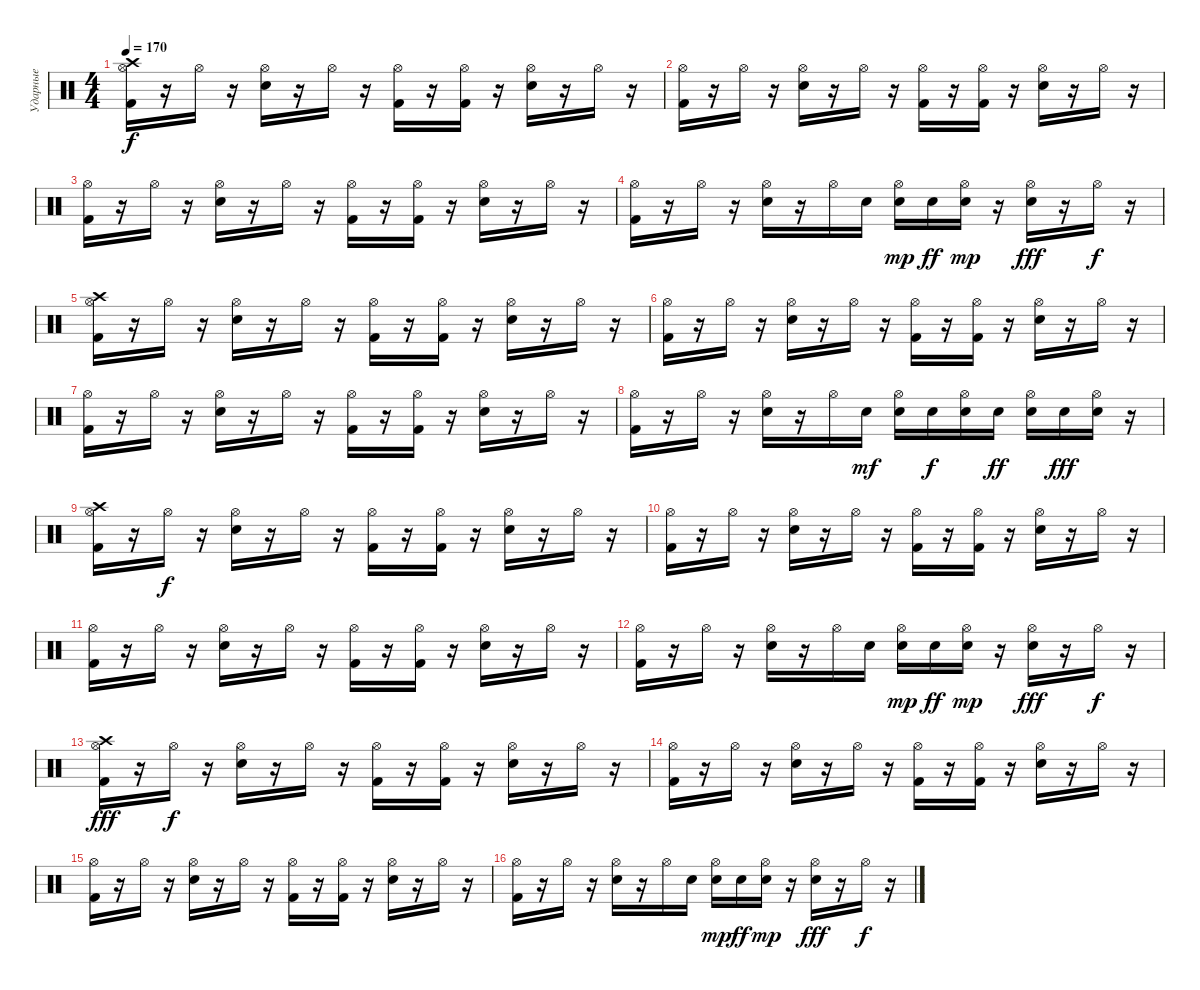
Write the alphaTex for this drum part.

\track ("Ударные" "Ударные") {instrument percussion}
\staff {score}
\articulation defaults
\ts (4 4)
\tempo 170
\clef neutral
\ks c
("Kick (hit) 2" "Crash high (hit)" "Hi-Hat (open)").16{dy f} r.16 "Hi-Hat (open)".16 r.16 ("Snare (hit) 2" "Hi-Hat (open)").16 r.16 "Hi-Hat (open)".16 r.16 ("Kick (hit) 2" "Hi-Hat (open)").16 r.16 ("Kick (hit) 2" "Hi-Hat (open)").16 r.16 ("Snare (hit) 2" "Hi-Hat (open)").16 r.16 "Hi-Hat (open)".16 r.16 |
("Kick (hit) 2" "Hi-Hat (open)").16 r.16 "Hi-Hat (open)".16 r.16 ("Snare (hit) 2" "Hi-Hat (open)").16 r.16 "Hi-Hat (open)".16 r.16 ("Kick (hit) 2" "Hi-Hat (open)").16 r.16 ("Kick (hit) 2" "Hi-Hat (open)").16 r.16 ("Snare (hit) 2" "Hi-Hat (open)").16 r.16 "Hi-Hat (open)".16 r.16 |
("Kick (hit) 2" "Hi-Hat (open)").16 r.16 "Hi-Hat (open)".16 r.16 ("Snare (hit) 2" "Hi-Hat (open)").16 r.16 "Hi-Hat (open)".16 r.16 ("Kick (hit) 2" "Hi-Hat (open)").16 r.16 ("Kick (hit) 2" "Hi-Hat (open)").16 r.16 ("Snare (hit) 2" "Hi-Hat (open)").16 r.16 "Hi-Hat (open)".16 r.16 |
("Kick (hit) 2" "Hi-Hat (open)").16 r.16 "Hi-Hat (open)".16 r.16 ("Snare (hit) 2" "Hi-Hat (open)").16 r.16 "Hi-Hat (open)".16 "Snare (hit) 2".16 ("Snare (hit) 2" "Hi-Hat (open)").16{dy mp} "Snare (hit) 2".16{dy ff} ("Snare (hit) 2" "Hi-Hat (open)").16{dy mp} r.16 ("Snare (hit) 2" "Hi-Hat (open)").16{dy fff} r.16 "Hi-Hat (open)".16{dy f} r.16 |
("Kick (hit) 2" "Crash high (hit)" "Hi-Hat (open)").16 r.16 "Hi-Hat (open)".16 r.16 ("Snare (hit) 2" "Hi-Hat (open)").16 r.16 "Hi-Hat (open)".16 r.16 ("Kick (hit) 2" "Hi-Hat (open)").16 r.16 ("Kick (hit) 2" "Hi-Hat (open)").16 r.16 ("Snare (hit) 2" "Hi-Hat (open)").16 r.16 "Hi-Hat (open)".16 r.16 |
("Kick (hit) 2" "Hi-Hat (open)").16 r.16 "Hi-Hat (open)".16 r.16 ("Snare (hit) 2" "Hi-Hat (open)").16 r.16 "Hi-Hat (open)".16 r.16 ("Kick (hit) 2" "Hi-Hat (open)").16 r.16 ("Kick (hit) 2" "Hi-Hat (open)").16 r.16 ("Snare (hit) 2" "Hi-Hat (open)").16 r.16 "Hi-Hat (open)".16 r.16 |
("Kick (hit) 2" "Hi-Hat (open)").16 r.16 "Hi-Hat (open)".16 r.16 ("Snare (hit) 2" "Hi-Hat (open)").16 r.16 "Hi-Hat (open)".16 r.16 ("Kick (hit) 2" "Hi-Hat (open)").16 r.16 ("Kick (hit) 2" "Hi-Hat (open)").16 r.16 ("Snare (hit) 2" "Hi-Hat (open)").16 r.16 "Hi-Hat (open)".16 r.16 |
("Kick (hit) 2" "Hi-Hat (open)").16 r.16 "Hi-Hat (open)".16 r.16 ("Snare (hit) 2" "Hi-Hat (open)").16 r.16 "Hi-Hat (open)".16 "Snare (hit) 2".16{dy mf} ("Snare (hit) 2" "Hi-Hat (open)").16 "Snare (hit) 2".16{dy f} ("Snare (hit) 2" "Hi-Hat (open)").16 "Snare (hit) 2".16{dy ff} ("Snare (hit) 2" "Hi-Hat (open)").16 "Snare (hit) 2".16{dy fff} ("Snare (hit) 2" "Hi-Hat (open)").16 r.16 |
("Kick (hit) 2" "Crash high (hit)" "Hi-Hat (open)").16 r.16 "Hi-Hat (open)".16{dy f} r.16 ("Snare (hit) 2" "Hi-Hat (open)").16 r.16 "Hi-Hat (open)".16 r.16 ("Kick (hit) 2" "Hi-Hat (open)").16 r.16 ("Kick (hit) 2" "Hi-Hat (open)").16 r.16 ("Snare (hit) 2" "Hi-Hat (open)").16 r.16 "Hi-Hat (open)".16 r.16 |
("Kick (hit) 2" "Hi-Hat (open)").16 r.16 "Hi-Hat (open)".16 r.16 ("Snare (hit) 2" "Hi-Hat (open)").16 r.16 "Hi-Hat (open)".16 r.16 ("Kick (hit) 2" "Hi-Hat (open)").16 r.16 ("Kick (hit) 2" "Hi-Hat (open)").16 r.16 ("Snare (hit) 2" "Hi-Hat (open)").16 r.16 "Hi-Hat (open)".16 r.16 |
("Kick (hit) 2" "Hi-Hat (open)").16 r.16 "Hi-Hat (open)".16 r.16 ("Snare (hit) 2" "Hi-Hat (open)").16 r.16 "Hi-Hat (open)".16 r.16 ("Kick (hit) 2" "Hi-Hat (open)").16 r.16 ("Kick (hit) 2" "Hi-Hat (open)").16 r.16 ("Snare (hit) 2" "Hi-Hat (open)").16 r.16 "Hi-Hat (open)".16 r.16 |
("Kick (hit) 2" "Hi-Hat (open)").16 r.16 "Hi-Hat (open)".16 r.16 ("Snare (hit) 2" "Hi-Hat (open)").16 r.16 "Hi-Hat (open)".16 "Snare (hit) 2".16 ("Snare (hit) 2" "Hi-Hat (open)").16{dy mp} "Snare (hit) 2".16{dy ff} ("Snare (hit) 2" "Hi-Hat (open)").16{dy mp} r.16 ("Snare (hit) 2" "Hi-Hat (open)").16{dy fff} r.16 "Hi-Hat (open)".16{dy f} r.16 |
("Kick (hit) 2" "Crash high (hit)" "Hi-Hat (open)").16{dy fff} r.16 "Hi-Hat (open)".16{dy f} r.16 ("Snare (hit) 2" "Hi-Hat (open)").16 r.16 "Hi-Hat (open)".16 r.16 ("Kick (hit) 2" "Hi-Hat (open)").16 r.16 ("Kick (hit) 2" "Hi-Hat (open)").16 r.16 ("Snare (hit) 2" "Hi-Hat (open)").16 r.16 "Hi-Hat (open)".16 r.16 |
("Kick (hit) 2" "Hi-Hat (open)").16 r.16 "Hi-Hat (open)".16 r.16 ("Snare (hit) 2" "Hi-Hat (open)").16 r.16 "Hi-Hat (open)".16 r.16 ("Kick (hit) 2" "Hi-Hat (open)").16 r.16 ("Kick (hit) 2" "Hi-Hat (open)").16 r.16 ("Snare (hit) 2" "Hi-Hat (open)").16 r.16 "Hi-Hat (open)".16 r.16 |
("Kick (hit) 2" "Hi-Hat (open)").16 r.16 "Hi-Hat (open)".16 r.16 ("Snare (hit) 2" "Hi-Hat (open)").16 r.16 "Hi-Hat (open)".16 r.16 ("Kick (hit) 2" "Hi-Hat (open)").16 r.16 ("Kick (hit) 2" "Hi-Hat (open)").16 r.16 ("Snare (hit) 2" "Hi-Hat (open)").16 r.16 "Hi-Hat (open)".16 r.16 |
("Kick (hit) 2" "Hi-Hat (open)").16 r.16 "Hi-Hat (open)".16 r.16 ("Snare (hit) 2" "Hi-Hat (open)").16 r.16 "Hi-Hat (open)".16 "Snare (hit) 2".16 ("Snare (hit) 2" "Hi-Hat (open)").16{dy mp} "Snare (hit) 2".16{dy ff} ("Snare (hit) 2" "Hi-Hat (open)").16{dy mp} r.16 ("Snare (hit) 2" "Hi-Hat (open)").16{dy fff} r.16 "Hi-Hat (open)".16{dy f} r.16
